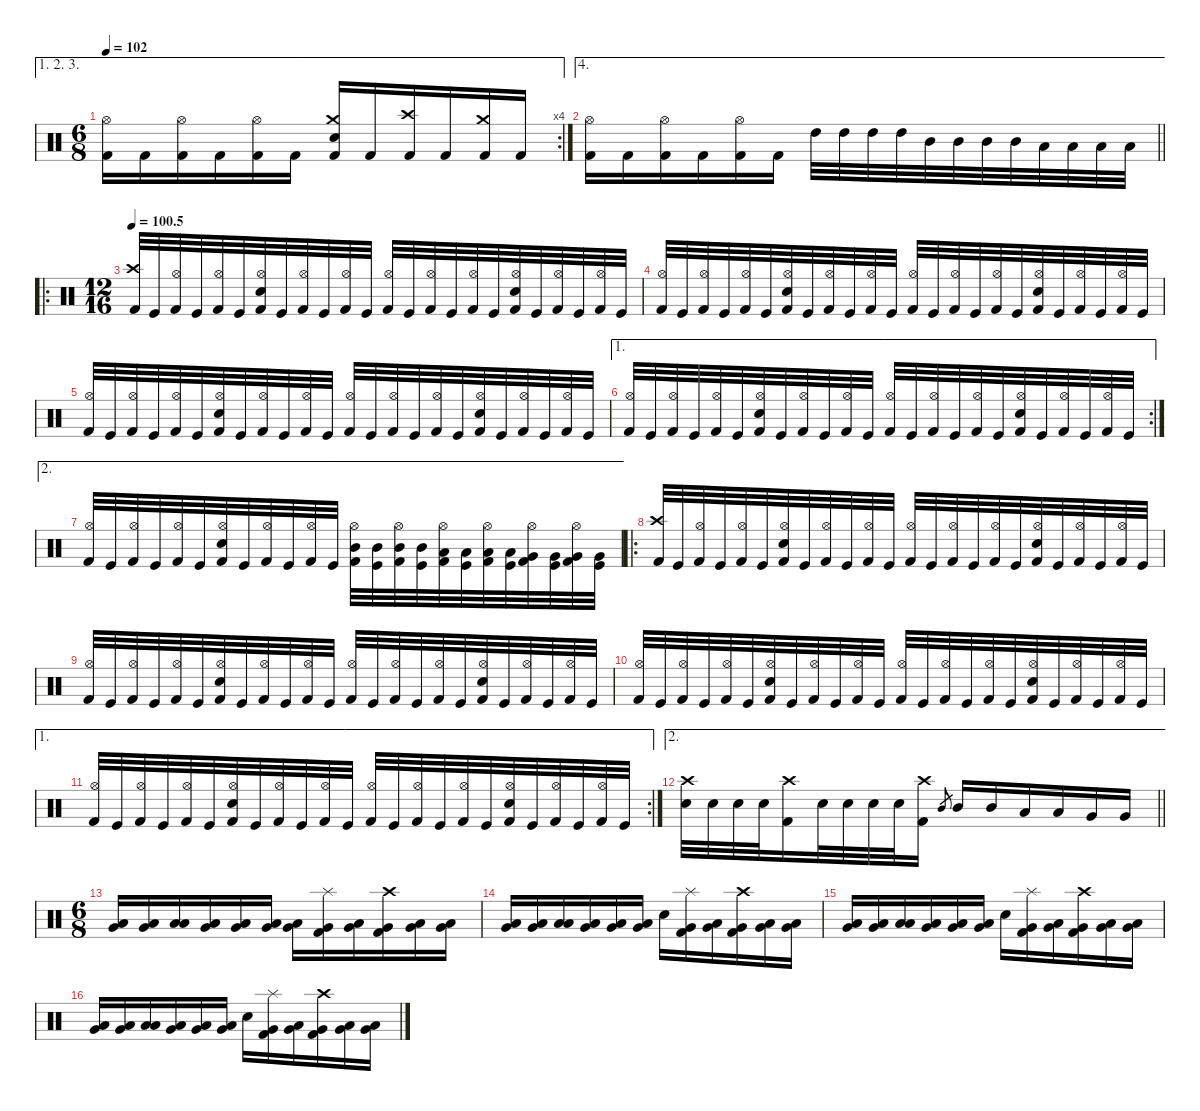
\defaultSystemsLayout 4
\hideDynamics
\bracketExtendMode nobrackets
\singleTrackTrackNamePolicy hidden
\multiTrackTrackNamePolicy hidden
\firstSystemTrackNameMode fullname
\firstSystemTrackNameOrientation horizontal
\otherSystemsTrackNameOrientation horizontal
\track ("Drums" "drm.") {instrument percussion}
\staff {score}
\articulation defaults
\ae (1 2 3)
\rc 4
\ts (6 8)
\tempo 102
\clef neutral
\ks c
("Hi-Hat (open)" "Kick (hit) 2").16{dy mp beam Down} "Kick (hit) 2".16{dy f beam Down} ("Hi-Hat (open)" "Kick (hit) 2").16{dy mp beam Down} "Kick (hit) 2".16{dy f beam Down} ("Hi-Hat (open)" "Kick (hit) 2").16{dy mp beam Down} "Kick (hit) 2".16{dy f beam Down} ("Crash medium (hit)" "Snare (hit) 2" "Kick (hit) 2").16{beam Up} "Kick (hit) 2".16{beam Up} ("Crash high (hit)" "Kick (hit) 2").16{beam Up} "Kick (hit) 2".16{beam Up} ("Crash medium (hit)" "Kick (hit) 2").16{beam Up} "Kick (hit) 2".16{beam Up} |
\ae 4
\barLineRight lightlight
("Hi-Hat (open)" "Kick (hit) 2").16{dy mp beam Down} "Kick (hit) 2".16{dy f beam Down} ("Hi-Hat (open)" "Kick (hit) 2").16{dy mp beam Down} "Kick (hit) 2".16{dy f beam Down} ("Hi-Hat (open)" "Kick (hit) 2").16{dy mp beam Down} "Kick (hit) 2".16{dy f beam Down} "High Tom (hit)".32{beam Down} "High Tom (hit)".32{dy mf beam Down} "High Tom (hit)".32{dy f beam Down} "High Tom (hit)".32{dy mf beam Down} "Mid Tom (hit)".32{dy f beam Down} "Mid Tom (hit)".32{dy mf beam Down} "Mid Tom (hit)".32{dy f beam Down} "Mid Tom (hit)".32{dy mf beam Down} "Low Tom (hit)".32{dy f beam Down} "Low Tom (hit)".32{dy mf beam Down} "Low Tom (hit)".32{dy f beam Down} "Low Tom (hit)".32{dy mf beam Down} |
\ro
\ts (12 16)
\beaming (8 3 3)
\tempo
100.5 ("Crash high (hit)" "Kick (hit) 2").32{dy f beam Up} "Kick (hit)".32{dy mp beam Up} ("Hi-Hat (open)" "Kick (hit) 2").32{beam Up} "Kick (hit)".32{beam Up} ("Hi-Hat (open)" "Kick (hit) 2").32{beam Up} "Kick (hit)".32{beam Up} ("Hi-Hat (open)" "Snare (hit) 2" "Kick (hit) 2").32{beam Up} "Kick (hit)".32{beam Up} ("Hi-Hat (open)" "Kick (hit) 2").32{beam Up} "Kick (hit)".32{beam Up} ("Hi-Hat (open)" "Kick (hit) 2").32{beam Up} "Kick (hit)".32{beam Up} ("Hi-Hat (open)" "Kick (hit) 2").32{beam Up} "Kick (hit)".32{beam Up} ("Hi-Hat (open)" "Kick (hit) 2").32{beam Up} "Kick (hit)".32{beam Up} ("Hi-Hat (open)" "Kick (hit) 2").32{beam Up} "Kick (hit)".32{beam Up} ("Hi-Hat (open)" "Snare (hit) 2" "Kick (hit) 2").32{beam Up} "Kick (hit)".32{beam Up} ("Hi-Hat (open)" "Kick (hit) 2").32{beam Up} "Kick (hit)".32{beam Up} ("Hi-Hat (open)" "Kick (hit) 2").32{beam Up} "Kick (hit)".32{beam Up} |
("Hi-Hat (open)" "Kick (hit) 2").32{beam Up} "Kick (hit)".32{beam Up} ("Hi-Hat (open)" "Kick (hit) 2").32{beam Up} "Kick (hit)".32{beam Up} ("Hi-Hat (open)" "Kick (hit) 2").32{beam Up} "Kick (hit)".32{beam Up} ("Hi-Hat (open)" "Snare (hit) 2" "Kick (hit) 2").32{beam Up} "Kick (hit)".32{beam Up} ("Hi-Hat (open)" "Kick (hit) 2").32{beam Up} "Kick (hit)".32{beam Up} ("Hi-Hat (open)" "Kick (hit) 2").32{beam Up} "Kick (hit)".32{beam Up} ("Hi-Hat (open)" "Kick (hit) 2").32{beam Up} "Kick (hit)".32{beam Up} ("Hi-Hat (open)" "Kick (hit) 2").32{beam Up} "Kick (hit)".32{beam Up} ("Hi-Hat (open)" "Kick (hit) 2").32{beam Up} "Kick (hit)".32{beam Up} ("Hi-Hat (open)" "Snare (hit) 2" "Kick (hit) 2").32{beam Up} "Kick (hit)".32{beam Up} ("Hi-Hat (open)" "Kick (hit) 2").32{beam Up} "Kick (hit)".32{beam Up} ("Hi-Hat (open)" "Kick (hit) 2").32{beam Up} "Kick (hit)".32{beam Up} |
("Hi-Hat (open)" "Kick (hit) 2").32{beam Up} "Kick (hit)".32{beam Up} ("Hi-Hat (open)" "Kick (hit) 2").32{beam Up} "Kick (hit)".32{beam Up} ("Hi-Hat (open)" "Kick (hit) 2").32{beam Up} "Kick (hit)".32{beam Up} ("Hi-Hat (open)" "Snare (hit) 2" "Kick (hit) 2").32{beam Up} "Kick (hit)".32{beam Up} ("Hi-Hat (open)" "Kick (hit) 2").32{beam Up} "Kick (hit)".32{beam Up} ("Hi-Hat (open)" "Kick (hit) 2").32{beam Up} "Kick (hit)".32{beam Up} ("Hi-Hat (open)" "Kick (hit) 2").32{beam Up} "Kick (hit)".32{beam Up} ("Hi-Hat (open)" "Kick (hit) 2").32{beam Up} "Kick (hit)".32{beam Up} ("Hi-Hat (open)" "Kick (hit) 2").32{beam Up} "Kick (hit)".32{beam Up} ("Hi-Hat (open)" "Snare (hit) 2" "Kick (hit) 2").32{beam Up} "Kick (hit)".32{beam Up} ("Hi-Hat (open)" "Kick (hit) 2").32{beam Up} "Kick (hit)".32{beam Up} ("Hi-Hat (open)" "Kick (hit) 2").32{beam Up} "Kick (hit)".32{beam Up} |
\ae 1
\rc 2
("Hi-Hat (open)" "Kick (hit) 2").32{beam Up} "Kick (hit)".32{beam Up} ("Hi-Hat (open)" "Kick (hit) 2").32{beam Up} "Kick (hit)".32{beam Up} ("Hi-Hat (open)" "Kick (hit) 2").32{beam Up} "Kick (hit)".32{beam Up} ("Hi-Hat (open)" "Snare (hit) 2" "Kick (hit) 2").32{beam Up} "Kick (hit)".32{beam Up} ("Hi-Hat (open)" "Kick (hit) 2").32{beam Up} "Kick (hit)".32{beam Up} ("Hi-Hat (open)" "Kick (hit) 2").32{beam Up} "Kick (hit)".32{beam Up} ("Hi-Hat (open)" "Kick (hit) 2").32{beam Up} "Kick (hit)".32{beam Up} ("Hi-Hat (open)" "Kick (hit) 2").32{beam Up} "Kick (hit)".32{beam Up} ("Hi-Hat (open)" "Kick (hit) 2").32{beam Up} "Kick (hit)".32{beam Up} ("Hi-Hat (open)" "Snare (hit) 2" "Kick (hit) 2").32{beam Up} "Kick (hit)".32{beam Up} ("Hi-Hat (open)" "Kick (hit) 2").32{beam Up} "Kick (hit)".32{beam Up} ("Hi-Hat (open)" "Kick (hit) 2").32{beam Up} "Kick (hit)".32{beam Up} |
\ae 2
("Hi-Hat (open)" "Kick (hit) 2").32{beam Up} "Kick (hit)".32{beam Up} ("Hi-Hat (open)" "Kick (hit) 2").32{beam Up} "Kick (hit)".32{beam Up} ("Hi-Hat (open)" "Kick (hit) 2").32{beam Up} "Kick (hit)".32{beam Up} ("Hi-Hat (open)" "Snare (hit) 2" "Kick (hit) 2").32{beam Up} "Kick (hit)".32{beam Up} ("Hi-Hat (open)" "Kick (hit) 2").32{beam Up} "Kick (hit)".32{beam Up} ("Hi-Hat (open)" "Kick (hit) 2").32{beam Up} "Kick (hit)".32{beam Up} ("Hi-Hat (open)" "Mid Tom (hit)" "Kick (hit) 2").32{beam Down} ("Mid Tom (hit)" "Kick (hit)").32{dy mf beam Down} ("Hi-Hat (open)" "Mid Tom (hit)" "Kick (hit) 2").32{dy mp beam Down} ("Mid Tom (hit)" "Kick (hit)").32{dy mf beam Down} ("Hi-Hat (open)" "Low Tom (hit)" "Kick (hit) 2").32{dy mp beam Down} ("Low Tom (hit)" "Kick (hit)").32{dy mf beam Down} ("Hi-Hat (open)" "Low Tom (hit)" "Kick (hit) 2").32{dy mp beam Down} ("Low Tom (hit)" "Kick (hit)").32{dy mf beam Down} ("Hi-Hat (open)" "Very Low Tom (hit)" "Kick (hit) 2").32{dy mp beam Down} ("Very Low Tom (hit)" "Kick (hit)").32{dy mf beam Down} ("Hi-Hat (open)" "Very Low Tom (hit)" "Kick (hit) 2").32{dy mp beam Down} ("Very Low Tom (hit)" "Kick (hit)").32{dy mf beam Down} |
\ro
("Crash high (hit)" "Kick (hit) 2").32{dy f beam Up} "Kick (hit)".32{beam Up} ("Hi-Hat (open)" "Kick (hit) 2").32{dy mp beam Up} "Kick (hit)".32{beam Up} ("Hi-Hat (open)" "Kick (hit) 2").32{beam Up} "Kick (hit)".32{beam Up} ("Hi-Hat (open)" "Snare (hit) 2" "Kick (hit) 2").32{beam Up} "Kick (hit)".32{beam Up} ("Hi-Hat (open)" "Kick (hit) 2").32{beam Up} "Kick (hit)".32{beam Up} ("Hi-Hat (open)" "Kick (hit) 2").32{beam Up} "Kick (hit)".32{beam Up} ("Hi-Hat (open)" "Kick (hit) 2").32{beam Up} "Kick (hit)".32{beam Up} ("Hi-Hat (open)" "Kick (hit) 2").32{beam Up} "Kick (hit)".32{beam Up} ("Hi-Hat (open)" "Kick (hit) 2").32{beam Up} "Kick (hit)".32{beam Up} ("Hi-Hat (open)" "Snare (hit) 2" "Kick (hit) 2").32{beam Up} "Kick (hit)".32{beam Up} ("Hi-Hat (open)" "Kick (hit) 2").32{beam Up} "Kick (hit)".32{beam Up} ("Hi-Hat (open)" "Kick (hit) 2").32{beam Up} "Kick (hit)".32{beam Up} |
("Hi-Hat (open)" "Kick (hit) 2").32{beam Up} "Kick (hit)".32{beam Up} ("Hi-Hat (open)" "Kick (hit) 2").32{beam Up} "Kick (hit)".32{beam Up} ("Hi-Hat (open)" "Kick (hit) 2").32{beam Up} "Kick (hit)".32{beam Up} ("Hi-Hat (open)" "Snare (hit) 2" "Kick (hit) 2").32{beam Up} "Kick (hit)".32{beam Up} ("Hi-Hat (open)" "Kick (hit) 2").32{beam Up} "Kick (hit)".32{beam Up} ("Hi-Hat (open)" "Kick (hit) 2").32{beam Up} "Kick (hit)".32{beam Up} ("Hi-Hat (open)" "Kick (hit) 2").32{beam Up} "Kick (hit)".32{beam Up} ("Hi-Hat (open)" "Kick (hit) 2").32{beam Up} "Kick (hit)".32{beam Up} ("Hi-Hat (open)" "Kick (hit) 2").32{beam Up} "Kick (hit)".32{beam Up} ("Hi-Hat (open)" "Snare (hit) 2" "Kick (hit) 2").32{beam Up} "Kick (hit)".32{beam Up} ("Hi-Hat (open)" "Kick (hit) 2").32{beam Up} "Kick (hit)".32{beam Up} ("Hi-Hat (open)" "Kick (hit) 2").32{beam Up} "Kick (hit)".32{beam Up} |
("Hi-Hat (open)" "Kick (hit) 2").32{beam Up} "Kick (hit)".32{beam Up} ("Hi-Hat (open)" "Kick (hit) 2").32{beam Up} "Kick (hit)".32{beam Up} ("Hi-Hat (open)" "Kick (hit) 2").32{beam Up} "Kick (hit)".32{beam Up} ("Hi-Hat (open)" "Snare (hit) 2" "Kick (hit) 2").32{beam Up} "Kick (hit)".32{beam Up} ("Hi-Hat (open)" "Kick (hit) 2").32{beam Up} "Kick (hit)".32{beam Up} ("Hi-Hat (open)" "Kick (hit) 2").32{beam Up} "Kick (hit)".32{beam Up} ("Hi-Hat (open)" "Kick (hit) 2").32{beam Up} "Kick (hit)".32{beam Up} ("Hi-Hat (open)" "Kick (hit) 2").32{beam Up} "Kick (hit)".32{beam Up} ("Hi-Hat (open)" "Kick (hit) 2").32{beam Up} "Kick (hit)".32{beam Up} ("Hi-Hat (open)" "Snare (hit) 2" "Kick (hit) 2").32{beam Up} "Kick (hit)".32{beam Up} ("Hi-Hat (open)" "Kick (hit) 2").32{beam Up} "Kick (hit)".32{beam Up} ("Hi-Hat (open)" "Kick (hit) 2").32{beam Up} "Kick (hit)".32{beam Up} |
\ae 1
\rc 2
("Hi-Hat (open)" "Kick (hit) 2").32{beam Up} "Kick (hit)".32{beam Up} ("Hi-Hat (open)" "Kick (hit) 2").32{beam Up} "Kick (hit)".32{beam Up} ("Hi-Hat (open)" "Kick (hit) 2").32{beam Up} "Kick (hit)".32{beam Up} ("Hi-Hat (open)" "Snare (hit) 2" "Kick (hit) 2").32{beam Up} "Kick (hit)".32{beam Up} ("Hi-Hat (open)" "Kick (hit) 2").32{beam Up} "Kick (hit)".32{beam Up} ("Hi-Hat (open)" "Kick (hit) 2").32{beam Up} "Kick (hit)".32{beam Up} ("Hi-Hat (open)" "Kick (hit) 2").32{beam Up} "Kick (hit)".32{beam Up} ("Hi-Hat (open)" "Kick (hit) 2").32{beam Up} "Kick (hit)".32{beam Up} ("Hi-Hat (open)" "Kick (hit) 2").32{beam Up} "Kick (hit)".32{beam Up} ("Hi-Hat (open)" "Snare (hit) 2" "Kick (hit) 2").32{beam Up} "Kick (hit)".32{beam Up} ("Hi-Hat (open)" "Kick (hit) 2").32{beam Up} "Kick (hit)".32{beam Up} ("Hi-Hat (open)" "Kick (hit) 2").32{beam Up} "Kick (hit)".32{beam Up} |
\ae 2
\barLineRight lightlight
("Crash high (hit)" "Snare (hit) 2").32{beam Down} "Snare (hit) 2".32{beam Down} "Snare (hit) 2".32{dy mf beam Down} "Snare (hit) 2".32{beam Down} ("Crash high (hit)" "Kick (hit) 2").16{dy mp beam Down} "Snare (hit) 2".32{dy p beam Down} "Snare (hit) 2".32{dy mp beam Down} "Snare (hit) 2".32{dy mf beam Down} "Snare (hit) 2".32{beam Down} ("Crash high (hit)" "Kick (hit) 2").16{dy mp beam Down} "Mid Tom (hit)".8{gr dy mf beam Up} "Mid Tom (hit)".16{dy f beam Up} "Mid Tom (hit)".16{beam Up} "Low Tom (hit)".16{beam Up} "Low Tom (hit)".16{beam Up} "Very Low Tom (hit)".16{beam Up} "Very Low Tom (hit)".16{beam Up} |
\ts (6 8)
\beaming (8 3 3)
("Low Tom (hit)" "Very Low Tom (hit)").16{dy mf beam Up} ("Low Tom (hit)" "Very Low Tom (hit)").16{dy f beam Up} ("Low Tom (hit)" "Low Tom (hit)").16{dy mf beam Up} ("Low Tom (hit)" "Very Low Tom (hit)").16{dy f beam Up} ("Low Tom (hit)" "Very Low Tom (hit)").16{dy mp beam Up} ("Low Tom (hit)" "Very Low Tom (hit)").16{dy f beam Up} ("Low Tom (hit)" "Very Low Tom (hit)").16{dy mf beam Down} ("Splash (hit)" "Very Low Tom (hit)" "Kick (hit) 2").16{dy ff beam Down} ("Low Tom (hit)" "Very Low Tom (hit)").16{dy mp beam Down} ("Crash high (hit)" "Very Low Tom (hit)" "Kick (hit) 2").16{dy f beam Down} ("Low Tom (hit)" "Very Low Tom (hit)").16{dy mf beam Down} ("Low Tom (hit)" "Very Low Tom (hit)").16{dy f beam Down} |
("Low Tom (hit)" "Very Low Tom (hit)").16{dy mf beam Up} ("Low Tom (hit)" "Very Low Tom (hit)").16{dy f beam Up} ("Low Tom (hit)" "Low Tom (hit)").16{dy mf beam Up} ("Low Tom (hit)" "Very Low Tom (hit)").16{dy f beam Up} ("Low Tom (hit)" "Very Low Tom (hit)").16{dy mp beam Up} ("Low Tom (hit)" "Very Low Tom (hit)").16{dy f beam Up} "Snare (hit) 2".16{beam Down} ("Splash (hit)" "Very Low Tom (hit)" "Kick (hit) 2").16{dy ff beam Down} ("Low Tom (hit)" "Very Low Tom (hit)").16{dy mp beam Down} ("Crash high (hit)" "Very Low Tom (hit)" "Kick (hit) 2").16{dy f beam Down} ("Low Tom (hit)" "Very Low Tom (hit)").16{dy mf beam Down} ("Low Tom (hit)" "Very Low Tom (hit)").16{dy f beam Down} |
("Low Tom (hit)" "Very Low Tom (hit)").16{dy mf beam Up} ("Low Tom (hit)" "Very Low Tom (hit)").16{dy f beam Up} ("Low Tom (hit)" "Low Tom (hit)").16{dy mf beam Up} ("Low Tom (hit)" "Very Low Tom (hit)").16{dy f beam Up} ("Low Tom (hit)" "Very Low Tom (hit)").16{dy mp beam Up} ("Low Tom (hit)" "Very Low Tom (hit)").16{dy f beam Up} "Snare (hit) 2".16{beam Down} ("Splash (hit)" "Very Low Tom (hit)" "Kick (hit) 2").16{dy ff beam Down} ("Low Tom (hit)" "Very Low Tom (hit)").16{dy mp beam Down} ("Crash high (hit)" "Very Low Tom (hit)" "Kick (hit) 2").16{dy f beam Down} ("Low Tom (hit)" "Very Low Tom (hit)").16{dy mf beam Down} ("Low Tom (hit)" "Very Low Tom (hit)").16{dy f beam Down} |
("Low Tom (hit)" "Very Low Tom (hit)").16{dy mf beam Up} ("Low Tom (hit)" "Very Low Tom (hit)").16{dy f beam Up} ("Low Tom (hit)" "Low Tom (hit)").16{dy mf beam Up} ("Low Tom (hit)" "Very Low Tom (hit)").16{dy f beam Up} ("Low Tom (hit)" "Very Low Tom (hit)").16{dy mp beam Up} ("Low Tom (hit)" "Very Low Tom (hit)").16{dy f beam Up} "Snare (hit) 2".16{beam Down} ("Splash (hit)" "Very Low Tom (hit)" "Kick (hit) 2").16{dy ff beam Down} ("Low Tom (hit)" "Very Low Tom (hit)").16{dy mp beam Down} ("Crash high (hit)" "Very Low Tom (hit)" "Kick (hit) 2").16{dy f beam Down} ("Low Tom (hit)" "Very Low Tom (hit)").16{dy mf beam Down} ("Low Tom (hit)" "Very Low Tom (hit)").16{dy f beam Down}
